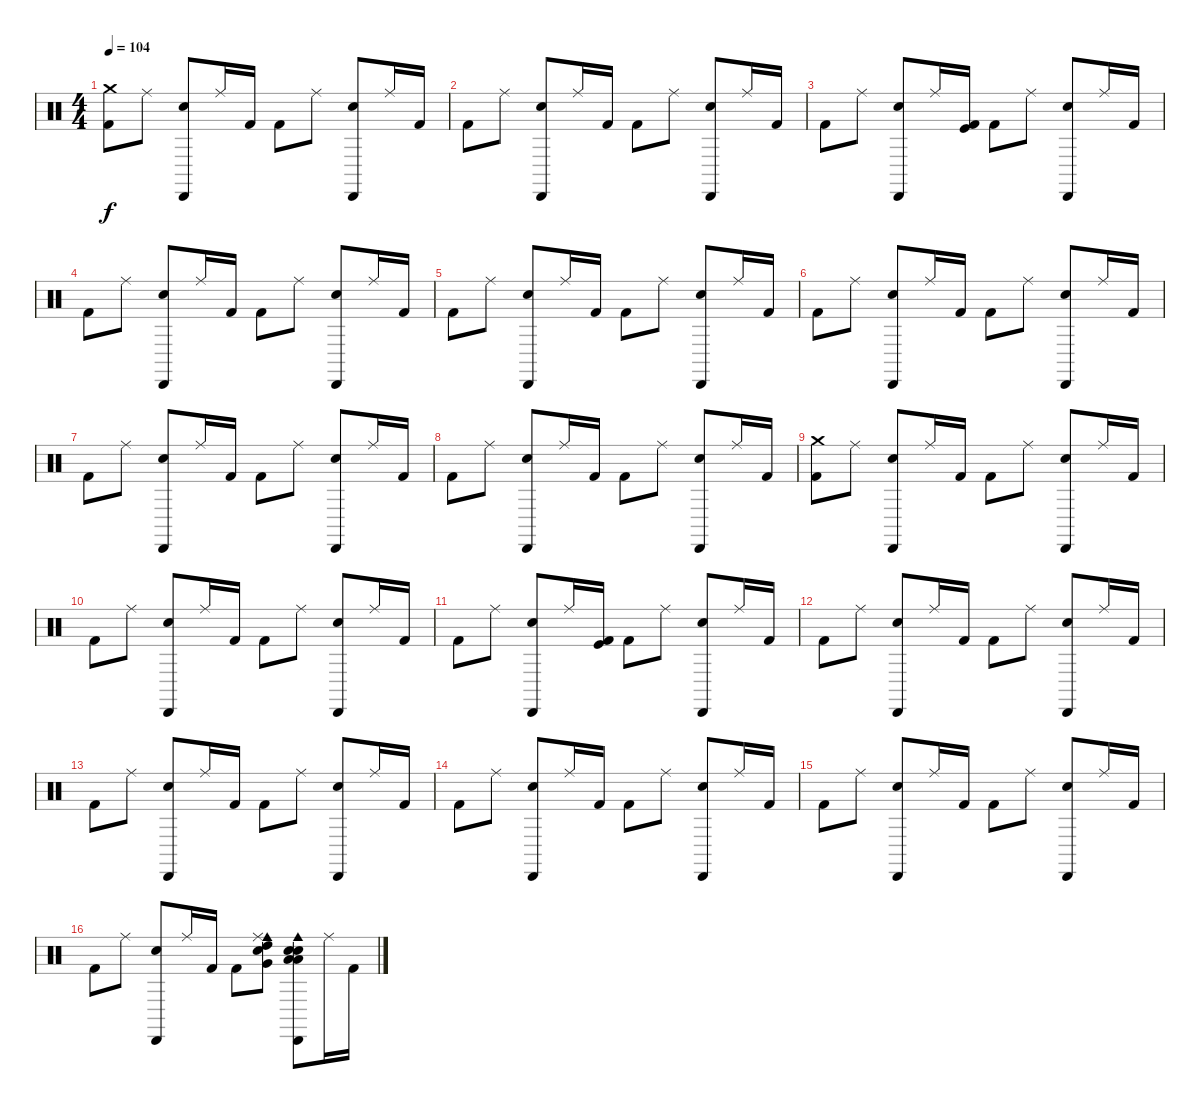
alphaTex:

\track "" {instrument percussion}
\staff {score}
\articulation defaults
\ts (4 4)
\tempo 104
\clef neutral
\ks c
("Crash medium (hit)" "Kick (hit) 2").8{dy f} "Ride (middle)".8 ("Hand Clap (hit)" "Cabasa (hit)").8 "Ride (middle)".16 "Kick (hit) 2".16 "Kick (hit) 2".8 "Ride (middle)".8 ("Hand Clap (hit)" "Cabasa (hit)").8 "Ride (middle)".16 "Kick (hit) 2".16 |
"Kick (hit) 2".8 "Ride (middle)".8 ("Hand Clap (hit)" "Cabasa (hit)").8 "Ride (middle)".16 "Kick (hit) 2".16 "Kick (hit) 2".8 "Ride (middle)".8 ("Hand Clap (hit)" "Cabasa (hit)").8 "Ride (middle)".16 "Kick (hit) 2".16 |
"Kick (hit) 2".8 "Ride (middle)".8 ("Hand Clap (hit)" "Cabasa (hit)").8 "Ride (middle)".16 ("Kick (hit) 2" "Kick (hit)").16 "Kick (hit) 2".8 "Ride (middle)".8 ("Hand Clap (hit)" "Cabasa (hit)").8 "Ride (middle)".16 "Kick (hit) 2".16 |
"Kick (hit) 2".8 "Ride (middle)".8 ("Cabasa (hit)" "Hand Clap (hit)").8 "Ride (middle)".16 "Kick (hit) 2".16 "Kick (hit) 2".8 "Ride (middle)".8 ("Cabasa (hit)" "Hand Clap (hit)").8 "Ride (middle)".16 "Kick (hit) 2".16 |
"Kick (hit) 2".8 "Ride (middle)".8 ("Cabasa (hit)" "Hand Clap (hit)").8 "Ride (middle)".16 "Kick (hit) 2".16 "Kick (hit) 2".8 "Ride (middle)".8 ("Cabasa (hit)" "Hand Clap (hit)").8 "Ride (middle)".16 "Kick (hit) 2".16 |
"Kick (hit) 2".8 "Ride (middle)".8 ("Cabasa (hit)" "Hand Clap (hit)").8 "Ride (middle)".16 "Kick (hit) 2".16 "Kick (hit) 2".8 "Ride (middle)".8 ("Cabasa (hit)" "Hand Clap (hit)").8 "Ride (middle)".16 "Kick (hit) 2".16 |
"Kick (hit) 2".8 "Ride (middle)".8 ("Cabasa (hit)" "Hand Clap (hit)").8 "Ride (middle)".16 "Kick (hit) 2".16 "Kick (hit) 2".8 "Ride (middle)".8 ("Cabasa (hit)" "Hand Clap (hit)").8 "Ride (middle)".16 "Kick (hit) 2".16 |
"Kick (hit) 2".8 "Ride (middle)".8 ("Cabasa (hit)" "Hand Clap (hit)").8 "Ride (middle)".16 "Kick (hit) 2".16 "Kick (hit) 2".8 "Ride (middle)".8 ("Cabasa (hit)" "Hand Clap (hit)").8 "Ride (middle)".16 "Kick (hit) 2".16 |
("Crash medium (hit)" "Kick (hit) 2").8 "Ride (middle)".8 ("Hand Clap (hit)" "Cabasa (hit)").8 "Ride (middle)".16 "Kick (hit) 2".16 "Kick (hit) 2".8 "Ride (middle)".8 ("Hand Clap (hit)" "Cabasa (hit)").8 "Ride (middle)".16 "Kick (hit) 2".16 |
"Kick (hit) 2".8 "Ride (middle)".8 ("Hand Clap (hit)" "Cabasa (hit)").8 "Ride (middle)".16 "Kick (hit) 2".16 "Kick (hit) 2".8 "Ride (middle)".8 ("Hand Clap (hit)" "Cabasa (hit)").8 "Ride (middle)".16 "Kick (hit) 2".16 |
"Kick (hit) 2".8 "Ride (middle)".8 ("Hand Clap (hit)" "Cabasa (hit)").8 "Ride (middle)".16 ("Kick (hit) 2" "Kick (hit)").16 "Kick (hit) 2".8 "Ride (middle)".8 ("Hand Clap (hit)" "Cabasa (hit)").8 "Ride (middle)".16 "Kick (hit) 2".16 |
"Kick (hit) 2".8 "Ride (middle)".8 ("Cabasa (hit)" "Hand Clap (hit)").8 "Ride (middle)".16 "Kick (hit) 2".16 "Kick (hit) 2".8 "Ride (middle)".8 ("Cabasa (hit)" "Hand Clap (hit)").8 "Ride (middle)".16 "Kick (hit) 2".16 |
"Kick (hit) 2".8 "Ride (middle)".8 ("Cabasa (hit)" "Hand Clap (hit)").8 "Ride (middle)".16 "Kick (hit) 2".16 "Kick (hit) 2".8 "Ride (middle)".8 ("Cabasa (hit)" "Hand Clap (hit)").8 "Ride (middle)".16 "Kick (hit) 2".16 |
"Kick (hit) 2".8 "Ride (middle)".8 ("Cabasa (hit)" "Hand Clap (hit)").8 "Ride (middle)".16 "Kick (hit) 2".16 "Kick (hit) 2".8 "Ride (middle)".8 ("Cabasa (hit)" "Hand Clap (hit)").8 "Ride (middle)".16 "Kick (hit) 2".16 |
"Kick (hit) 2".8 "Ride (middle)".8 ("Cabasa (hit)" "Hand Clap (hit)").8 "Ride (middle)".16 "Kick (hit) 2".16 "Kick (hit) 2".8 "Ride (middle)".8 ("Cabasa (hit)" "Hand Clap (hit)").8 "Ride (middle)".16 "Kick (hit) 2".16 |
"Kick (hit) 2".8 "Ride (middle)".8 ("Cabasa (hit)" "Hand Clap (hit)").8 "Ride (middle)".16 "Kick (hit) 2".16 "Kick (hit) 2".8 ("Very Low Tom (hit)" "Electric Snare (hit)" "Cowbell medium (hit)" "High Tom (hit)" "Ride (middle)").8 ("Snare (hit) 2" "Low Floor Tom (hit)" "Low Tom (hit)" "Cowbell medium (hit)" "Cabasa (hit)" "Hand Clap (hit)").8 "Ride (middle)".16 "Kick (hit) 2".16
